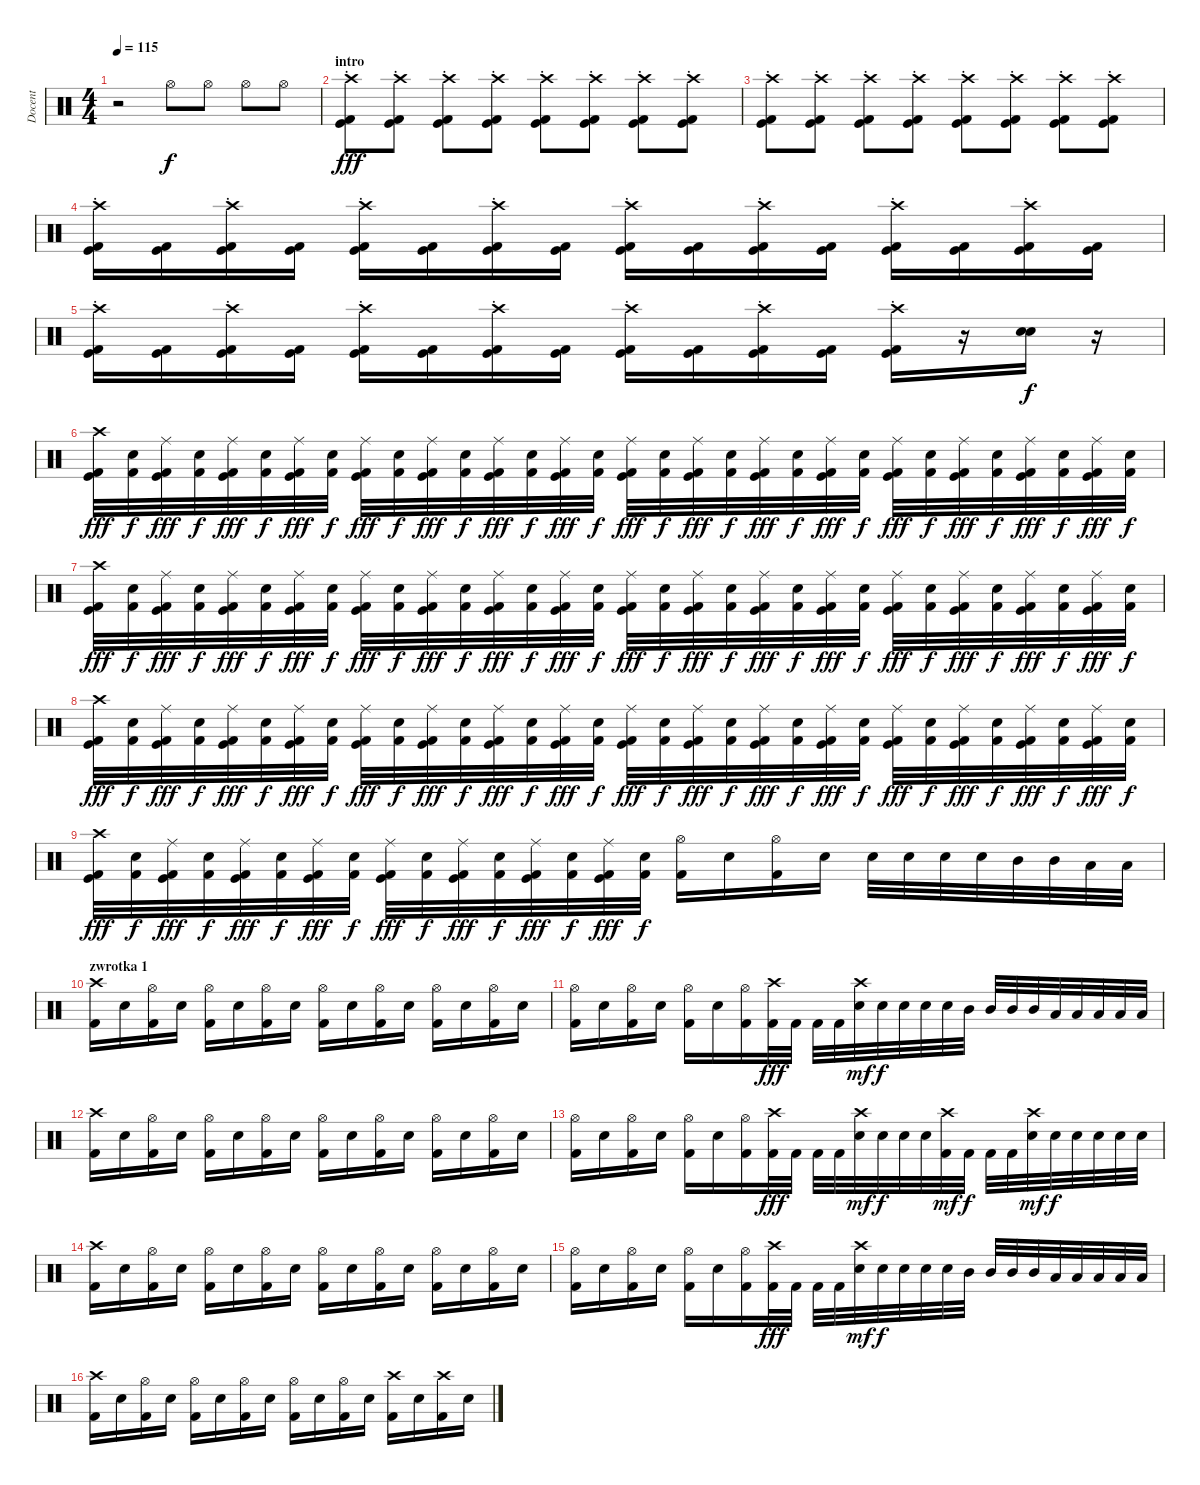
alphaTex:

\track ("Docent" "Docent") {instrument percussion}
\staff {score}
\articulation defaults
\ts (4 4)
\tempo 115
\clef neutral
\ks c
r.2{dy f} "Hi-Hat (open)".8 "Hi-Hat (open)".8 "Hi-Hat (open)".8 "Hi-Hat (open)".8 |
\section ("" "intro")
("Kick (hit) 2" "Kick (hit)" "Crash high (hit)"{st}).8{dy fff} ("Kick (hit) 2" "Kick (hit)" "Crash high (hit)"{st}).8 ("Kick (hit) 2" "Kick (hit)" "Crash high (hit)"{st}).8 ("Kick (hit) 2" "Kick (hit)" "Crash high (hit)"{st}).8 ("Kick (hit) 2" "Kick (hit)" "Crash high (hit)"{st}).8 ("Kick (hit) 2" "Kick (hit)" "Crash high (hit)"{st}).8 ("Kick (hit) 2" "Kick (hit)" "Crash high (hit)"{st}).8 ("Kick (hit) 2" "Kick (hit)" "Crash high (hit)"{st}).8 |
("Kick (hit) 2" "Kick (hit)" "Crash high (hit)"{st}).8 ("Kick (hit) 2" "Kick (hit)" "Crash high (hit)"{st}).8 ("Kick (hit) 2" "Kick (hit)" "Crash high (hit)"{st}).8 ("Kick (hit) 2" "Kick (hit)" "Crash high (hit)"{st}).8 ("Kick (hit) 2" "Kick (hit)" "Crash high (hit)"{st}).8 ("Kick (hit) 2" "Kick (hit)" "Crash high (hit)"{st}).8 ("Kick (hit) 2" "Kick (hit)" "Crash high (hit)"{st}).8 ("Kick (hit) 2" "Kick (hit)" "Crash high (hit)"{st}).8 |
("Kick (hit) 2" "Kick (hit)" "Crash high (hit)"{st}).16 ("Kick (hit) 2" "Kick (hit)").16 ("Kick (hit) 2" "Kick (hit)" "Crash high (hit)"{st}).16 ("Kick (hit) 2" "Kick (hit)").16 ("Kick (hit) 2" "Kick (hit)" "Crash high (hit)"{st}).16 ("Kick (hit) 2" "Kick (hit)").16 ("Kick (hit) 2" "Kick (hit)" "Crash high (hit)"{st}).16 ("Kick (hit) 2" "Kick (hit)").16 ("Kick (hit) 2" "Kick (hit)" "Crash high (hit)"{st}).16 ("Kick (hit) 2" "Kick (hit)").16 ("Kick (hit) 2" "Kick (hit)" "Crash high (hit)"{st}).16 ("Kick (hit) 2" "Kick (hit)").16 ("Kick (hit) 2" "Kick (hit)" "Crash high (hit)"{st}).16 ("Kick (hit) 2" "Kick (hit)").16 ("Kick (hit) 2" "Kick (hit)" "Crash high (hit)"{st}).16 ("Kick (hit) 2" "Kick (hit)").16 |
("Kick (hit) 2" "Kick (hit)" "Crash high (hit)"{st}).16 ("Kick (hit) 2" "Kick (hit)").16 ("Kick (hit) 2" "Kick (hit)" "Crash high (hit)"{st}).16 ("Kick (hit) 2" "Kick (hit)").16 ("Kick (hit) 2" "Kick (hit)" "Crash high (hit)"{st}).16 ("Kick (hit) 2" "Kick (hit)").16 ("Kick (hit) 2" "Kick (hit)" "Crash high (hit)"{st}).16 ("Kick (hit) 2" "Kick (hit)").16 ("Kick (hit) 2" "Kick (hit)" "Crash high (hit)"{st}).16 ("Kick (hit) 2" "Kick (hit)").16 ("Kick (hit) 2" "Kick (hit)" "Crash high (hit)"{st}).16 ("Kick (hit) 2" "Kick (hit)").16 ("Kick (hit) 2" "Kick (hit)" "Crash high (hit)"{st}).16 r.16 ("Snare (hit) 2" "Electric Snare (hit)").16{dy f} r.16 |
("Crash high (hit)" "Kick (hit)" "Kick (hit) 2").32{dy fff} ("Electric Snare (hit)" "Kick (hit) 2").32{dy f} ("Ride (middle)" "Kick (hit)" "Kick (hit) 2").32{dy fff} ("Electric Snare (hit)" "Kick (hit) 2").32{dy f} ("Ride (middle)" "Kick (hit)" "Kick (hit) 2").32{dy fff} ("Electric Snare (hit)" "Kick (hit) 2").32{dy f} ("Ride (middle)" "Kick (hit)" "Kick (hit) 2").32{dy fff} ("Electric Snare (hit)" "Kick (hit) 2").32{dy f} ("Ride (middle)" "Kick (hit)" "Kick (hit) 2").32{dy fff} ("Electric Snare (hit)" "Kick (hit) 2").32{dy f} ("Ride (middle)" "Kick (hit)" "Kick (hit) 2").32{dy fff} ("Electric Snare (hit)" "Kick (hit) 2").32{dy f} ("Ride (middle)" "Kick (hit)" "Kick (hit) 2").32{dy fff} ("Electric Snare (hit)" "Kick (hit) 2").32{dy f} ("Ride (middle)" "Kick (hit)" "Kick (hit) 2").32{dy fff} ("Electric Snare (hit)" "Kick (hit) 2").32{dy f} ("Ride (middle)" "Kick (hit)" "Kick (hit) 2").32{dy fff} ("Electric Snare (hit)" "Kick (hit) 2").32{dy f} ("Ride (middle)" "Kick (hit)" "Kick (hit) 2").32{dy fff} ("Electric Snare (hit)" "Kick (hit) 2").32{dy f} ("Ride (middle)" "Kick (hit)" "Kick (hit) 2").32{dy fff} ("Electric Snare (hit)" "Kick (hit) 2").32{dy f} ("Ride (middle)" "Kick (hit)" "Kick (hit) 2").32{dy fff} ("Electric Snare (hit)" "Kick (hit) 2").32{dy f} ("Ride (middle)" "Kick (hit)" "Kick (hit) 2").32{dy fff} ("Electric Snare (hit)" "Kick (hit) 2").32{dy f} ("Ride (middle)" "Kick (hit)" "Kick (hit) 2").32{dy fff} ("Electric Snare (hit)" "Kick (hit) 2").32{dy f} ("Ride (middle)" "Kick (hit)" "Kick (hit) 2").32{dy fff} ("Electric Snare (hit)" "Kick (hit) 2").32{dy f} ("Ride (middle)" "Kick (hit)" "Kick (hit) 2").32{dy fff} ("Electric Snare (hit)" "Kick (hit) 2").32{dy f} |
("Crash high (hit)" "Kick (hit)" "Kick (hit) 2").32{dy fff} ("Electric Snare (hit)" "Kick (hit) 2").32{dy f} ("Ride (middle)" "Kick (hit)" "Kick (hit) 2").32{dy fff} ("Electric Snare (hit)" "Kick (hit) 2").32{dy f} ("Ride (middle)" "Kick (hit)" "Kick (hit) 2").32{dy fff} ("Electric Snare (hit)" "Kick (hit) 2").32{dy f} ("Ride (middle)" "Kick (hit)" "Kick (hit) 2").32{dy fff} ("Electric Snare (hit)" "Kick (hit) 2").32{dy f} ("Ride (middle)" "Kick (hit)" "Kick (hit) 2").32{dy fff} ("Electric Snare (hit)" "Kick (hit) 2").32{dy f} ("Ride (middle)" "Kick (hit)" "Kick (hit) 2").32{dy fff} ("Electric Snare (hit)" "Kick (hit) 2").32{dy f} ("Ride (middle)" "Kick (hit)" "Kick (hit) 2").32{dy fff} ("Electric Snare (hit)" "Kick (hit) 2").32{dy f} ("Ride (middle)" "Kick (hit)" "Kick (hit) 2").32{dy fff} ("Electric Snare (hit)" "Kick (hit) 2").32{dy f} ("Ride (middle)" "Kick (hit)" "Kick (hit) 2").32{dy fff} ("Electric Snare (hit)" "Kick (hit) 2").32{dy f} ("Ride (middle)" "Kick (hit)" "Kick (hit) 2").32{dy fff} ("Electric Snare (hit)" "Kick (hit) 2").32{dy f} ("Ride (middle)" "Kick (hit)" "Kick (hit) 2").32{dy fff} ("Electric Snare (hit)" "Kick (hit) 2").32{dy f} ("Ride (middle)" "Kick (hit)" "Kick (hit) 2").32{dy fff} ("Electric Snare (hit)" "Kick (hit) 2").32{dy f} ("Ride (middle)" "Kick (hit)" "Kick (hit) 2").32{dy fff} ("Electric Snare (hit)" "Kick (hit) 2").32{dy f} ("Ride (middle)" "Kick (hit)" "Kick (hit) 2").32{dy fff} ("Electric Snare (hit)" "Kick (hit) 2").32{dy f} ("Ride (middle)" "Kick (hit)" "Kick (hit) 2").32{dy fff} ("Electric Snare (hit)" "Kick (hit) 2").32{dy f} ("Ride (middle)" "Kick (hit)" "Kick (hit) 2").32{dy fff} ("Electric Snare (hit)" "Kick (hit) 2").32{dy f} |
("Crash high (hit)" "Kick (hit)" "Kick (hit) 2").32{dy fff} ("Electric Snare (hit)" "Kick (hit) 2").32{dy f} ("Ride (middle)" "Kick (hit)" "Kick (hit) 2").32{dy fff} ("Electric Snare (hit)" "Kick (hit) 2").32{dy f} ("Ride (middle)" "Kick (hit)" "Kick (hit) 2").32{dy fff} ("Electric Snare (hit)" "Kick (hit) 2").32{dy f} ("Ride (middle)" "Kick (hit)" "Kick (hit) 2").32{dy fff} ("Electric Snare (hit)" "Kick (hit) 2").32{dy f} ("Ride (middle)" "Kick (hit)" "Kick (hit) 2").32{dy fff} ("Electric Snare (hit)" "Kick (hit) 2").32{dy f} ("Ride (middle)" "Kick (hit)" "Kick (hit) 2").32{dy fff} ("Electric Snare (hit)" "Kick (hit) 2").32{dy f} ("Ride (middle)" "Kick (hit)" "Kick (hit) 2").32{dy fff} ("Electric Snare (hit)" "Kick (hit) 2").32{dy f} ("Ride (middle)" "Kick (hit)" "Kick (hit) 2").32{dy fff} ("Electric Snare (hit)" "Kick (hit) 2").32{dy f} ("Ride (middle)" "Kick (hit)" "Kick (hit) 2").32{dy fff} ("Electric Snare (hit)" "Kick (hit) 2").32{dy f} ("Ride (middle)" "Kick (hit)" "Kick (hit) 2").32{dy fff} ("Electric Snare (hit)" "Kick (hit) 2").32{dy f} ("Ride (middle)" "Kick (hit)" "Kick (hit) 2").32{dy fff} ("Electric Snare (hit)" "Kick (hit) 2").32{dy f} ("Ride (middle)" "Kick (hit)" "Kick (hit) 2").32{dy fff} ("Electric Snare (hit)" "Kick (hit) 2").32{dy f} ("Ride (middle)" "Kick (hit)" "Kick (hit) 2").32{dy fff} ("Electric Snare (hit)" "Kick (hit) 2").32{dy f} ("Ride (middle)" "Kick (hit)" "Kick (hit) 2").32{dy fff} ("Electric Snare (hit)" "Kick (hit) 2").32{dy f} ("Ride (middle)" "Kick (hit)" "Kick (hit) 2").32{dy fff} ("Electric Snare (hit)" "Kick (hit) 2").32{dy f} ("Ride (middle)" "Kick (hit)" "Kick (hit) 2").32{dy fff} ("Electric Snare (hit)" "Kick (hit) 2").32{dy f} |
("Crash high (hit)" "Kick (hit)" "Kick (hit) 2").32{dy fff} ("Electric Snare (hit)" "Kick (hit) 2").32{dy f} ("Ride (middle)" "Kick (hit)" "Kick (hit) 2").32{dy fff} ("Electric Snare (hit)" "Kick (hit) 2").32{dy f} ("Ride (middle)" "Kick (hit)" "Kick (hit) 2").32{dy fff} ("Electric Snare (hit)" "Kick (hit) 2").32{dy f} ("Ride (middle)" "Kick (hit)" "Kick (hit) 2").32{dy fff} ("Electric Snare (hit)" "Kick (hit) 2").32{dy f} ("Ride (middle)" "Kick (hit)" "Kick (hit) 2").32{dy fff} ("Electric Snare (hit)" "Kick (hit) 2").32{dy f} ("Ride (middle)" "Kick (hit)" "Kick (hit) 2").32{dy fff} ("Electric Snare (hit)" "Kick (hit) 2").32{dy f} ("Ride (middle)" "Kick (hit)" "Kick (hit) 2").32{dy fff} ("Electric Snare (hit)" "Kick (hit) 2").32{dy f} ("Ride (middle)" "Kick (hit)" "Kick (hit) 2").32{dy fff} ("Electric Snare (hit)" "Kick (hit) 2").32{dy f} ("Hi-Hat (open)" "Kick (hit) 2").16 "Electric Snare (hit)".16 ("Hi-Hat (open)" "Kick (hit) 2").16 "Electric Snare (hit)".16 "Electric Snare (hit)".32 "Electric Snare (hit)".32 "Electric Snare (hit)".32 "Electric Snare (hit)".32 "Mid Tom (hit)".32 "Mid Tom (hit)".32 "Low Tom (hit)".32 "Low Tom (hit)".32 |
\section ("" "zwrotka 1")
("Crash high (hit)" "Kick (hit) 2").16 "Electric Snare (hit)".16 ("Hi-Hat (open)" "Kick (hit) 2").16 "Electric Snare (hit)".16 ("Hi-Hat (open)" "Kick (hit) 2").16 "Electric Snare (hit)".16 ("Hi-Hat (open)" "Kick (hit) 2").16 "Electric Snare (hit)".16 ("Hi-Hat (open)" "Kick (hit) 2").16 "Electric Snare (hit)".16 ("Hi-Hat (open)" "Kick (hit) 2").16 "Electric Snare (hit)".16 ("Hi-Hat (open)" "Kick (hit) 2").16 "Electric Snare (hit)".16 ("Hi-Hat (open)" "Kick (hit) 2").16 "Electric Snare (hit)".16 |
("Hi-Hat (open)" "Kick (hit) 2").16 "Electric Snare (hit)".16 ("Hi-Hat (open)" "Kick (hit) 2").16 "Electric Snare (hit)".16 ("Hi-Hat (open)" "Kick (hit) 2").16 "Electric Snare (hit)".16 ("Hi-Hat (open)" "Kick (hit) 2").16 ("Crash high (hit)" "Kick (hit) 2").32{dy fff} "Kick (hit) 2".32 "Kick (hit) 2".32 "Kick (hit) 2".32 ("Crash high (hit)" "Electric Snare (hit)").32{dy mf} "Electric Snare (hit)".32{dy f} "Electric Snare (hit)".32 "Electric Snare (hit)".32 "Electric Snare (hit)".32 "Mid Tom (hit)".32 "Mid Tom (hit)".32 "Mid Tom (hit)".32 "Mid Tom (hit)".32 "Low Tom (hit)".32 "Low Tom (hit)".32 "Low Tom (hit)".32 "Low Tom (hit)".32 "Low Tom (hit)".32 |
("Crash high (hit)" "Kick (hit) 2").16 "Electric Snare (hit)".16 ("Hi-Hat (open)" "Kick (hit) 2").16 "Electric Snare (hit)".16 ("Hi-Hat (open)" "Kick (hit) 2").16 "Electric Snare (hit)".16 ("Hi-Hat (open)" "Kick (hit) 2").16 "Electric Snare (hit)".16 ("Hi-Hat (open)" "Kick (hit) 2").16 "Electric Snare (hit)".16 ("Hi-Hat (open)" "Kick (hit) 2").16 "Electric Snare (hit)".16 ("Hi-Hat (open)" "Kick (hit) 2").16 "Electric Snare (hit)".16 ("Hi-Hat (open)" "Kick (hit) 2").16 "Electric Snare (hit)".16 |
("Hi-Hat (open)" "Kick (hit) 2").16 "Electric Snare (hit)".16 ("Hi-Hat (open)" "Kick (hit) 2").16 "Electric Snare (hit)".16 ("Hi-Hat (open)" "Kick (hit) 2").16 "Electric Snare (hit)".16 ("Hi-Hat (open)" "Kick (hit) 2").16 ("Crash high (hit)" "Kick (hit) 2").32{dy fff} "Kick (hit) 2".32 "Kick (hit) 2".32 "Kick (hit) 2".32 ("Crash high (hit)" "Electric Snare (hit)").32{dy mf} "Electric Snare (hit)".32{dy f} "Electric Snare (hit)".32 "Electric Snare (hit)".32 ("Crash high (hit)" "Kick (hit) 2").32{dy mf} "Kick (hit) 2".32{dy f} "Kick (hit) 2".32 "Kick (hit) 2".32 ("Crash high (hit)" "Electric Snare (hit)").32{dy mf} "Electric Snare (hit)".32{dy f} "Electric Snare (hit)".32 "Electric Snare (hit)".32 "Electric Snare (hit)".32 "Electric Snare (hit)".32 |
("Crash high (hit)" "Kick (hit) 2").16 "Electric Snare (hit)".16 ("Hi-Hat (open)" "Kick (hit) 2").16 "Electric Snare (hit)".16 ("Hi-Hat (open)" "Kick (hit) 2").16 "Electric Snare (hit)".16 ("Hi-Hat (open)" "Kick (hit) 2").16 "Electric Snare (hit)".16 ("Hi-Hat (open)" "Kick (hit) 2").16 "Electric Snare (hit)".16 ("Hi-Hat (open)" "Kick (hit) 2").16 "Electric Snare (hit)".16 ("Hi-Hat (open)" "Kick (hit) 2").16 "Electric Snare (hit)".16 ("Hi-Hat (open)" "Kick (hit) 2").16 "Electric Snare (hit)".16 |
("Hi-Hat (open)" "Kick (hit) 2").16 "Electric Snare (hit)".16 ("Hi-Hat (open)" "Kick (hit) 2").16 "Electric Snare (hit)".16 ("Hi-Hat (open)" "Kick (hit) 2").16 "Electric Snare (hit)".16 ("Hi-Hat (open)" "Kick (hit) 2").16 ("Crash high (hit)" "Kick (hit) 2").32{dy fff} "Kick (hit) 2".32 "Kick (hit) 2".32 "Kick (hit) 2".32 ("Crash high (hit)" "Electric Snare (hit)").32{dy mf} "Electric Snare (hit)".32{dy f} "Electric Snare (hit)".32 "Electric Snare (hit)".32 "Electric Snare (hit)".32 "Mid Tom (hit)".32 "Mid Tom (hit)".32 "Mid Tom (hit)".32 "Mid Tom (hit)".32 "Low Tom (hit)".32 "Low Tom (hit)".32 "Low Tom (hit)".32 "Low Tom (hit)".32 "Low Tom (hit)".32 |
("Crash high (hit)" "Kick (hit) 2").16 "Electric Snare (hit)".16 ("Hi-Hat (open)" "Kick (hit) 2").16 "Electric Snare (hit)".16 ("Hi-Hat (open)" "Kick (hit) 2").16 "Electric Snare (hit)".16 ("Hi-Hat (open)" "Kick (hit) 2").16 "Electric Snare (hit)".16 ("Hi-Hat (open)" "Kick (hit) 2").16 "Electric Snare (hit)".16 ("Hi-Hat (open)" "Kick (hit) 2").16 "Electric Snare (hit)".16 ("Crash high (hit)" "Kick (hit) 2").16 "Electric Snare (hit)".16 ("Crash high (hit)" "Kick (hit) 2").16 "Electric Snare (hit)".16
